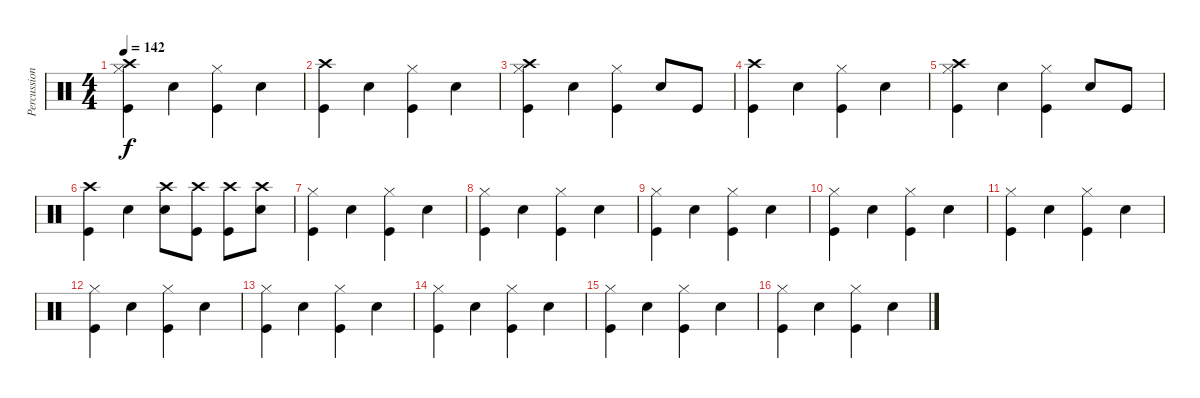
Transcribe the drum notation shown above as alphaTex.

\track ("Percussion" "Percussion") {instrument percussion}
\staff {score}
\articulation defaults
\ts (4 4)
\tempo 142
\clef neutral
\ks c
("Crash high (hit)" "Hi-Hat (closed)" "Kick (hit)").4{dy f} "Snare (hit) 2".4 ("Hi-Hat (closed)" "Kick (hit)").4 "Snare (hit) 2".4 |
("Crash high (hit)" "Kick (hit)").4 "Snare (hit) 2".4 ("Hi-Hat (closed)" "Kick (hit)").4 "Snare (hit) 2".4 |
("Crash high (hit)" "Hi-Hat (closed)" "Kick (hit)").4 "Snare (hit) 2".4 ("Hi-Hat (closed)" "Kick (hit)").4 "Snare (hit) 2".8 "Kick (hit)".8 |
("Crash high (hit)" "Kick (hit)").4 "Snare (hit) 2".4 ("Hi-Hat (closed)" "Kick (hit)").4 "Snare (hit) 2".4 |
("Crash high (hit)" "Hi-Hat (closed)" "Kick (hit)").4 "Snare (hit) 2".4 ("Hi-Hat (closed)" "Kick (hit)").4 "Snare (hit) 2".8 "Kick (hit)".8 |
("Crash high (hit)" "Kick (hit)").4 "Snare (hit) 2".4 ("Crash high (hit)" "Snare (hit) 2").8 ("Crash high (hit)" "Kick (hit)").8 ("Crash high (hit)" "Kick (hit)").8 ("Crash high (hit)" "Snare (hit) 2").8 |
("Hi-Hat (closed)" "Kick (hit)").4 "Snare (hit) 2".4 ("Hi-Hat (closed)" "Kick (hit)").4 "Snare (hit) 2".4 |
("Hi-Hat (closed)" "Kick (hit)").4 "Snare (hit) 2".4 ("Hi-Hat (closed)" "Kick (hit)").4 "Snare (hit) 2".4 |
("Hi-Hat (closed)" "Kick (hit)").4 "Snare (hit) 2".4 ("Hi-Hat (closed)" "Kick (hit)").4 "Snare (hit) 2".4 |
("Hi-Hat (closed)" "Kick (hit)").4 "Snare (hit) 2".4 ("Hi-Hat (closed)" "Kick (hit)").4 "Snare (hit) 2".4 |
("Hi-Hat (closed)" "Kick (hit)").4 "Snare (hit) 2".4 ("Hi-Hat (closed)" "Kick (hit)").4 "Snare (hit) 2".4 |
("Hi-Hat (closed)" "Kick (hit)").4 "Snare (hit) 2".4 ("Hi-Hat (closed)" "Kick (hit)").4 "Snare (hit) 2".4 |
("Hi-Hat (closed)" "Kick (hit)").4 "Snare (hit) 2".4 ("Hi-Hat (closed)" "Kick (hit)").4 "Snare (hit) 2".4 |
("Hi-Hat (closed)" "Kick (hit)").4 "Snare (hit) 2".4 ("Hi-Hat (closed)" "Kick (hit)").4 "Snare (hit) 2".4 |
("Hi-Hat (closed)" "Kick (hit)").4 "Snare (hit) 2".4 ("Hi-Hat (closed)" "Kick (hit)").4 "Snare (hit) 2".4 |
("Hi-Hat (closed)" "Kick (hit)").4 "Snare (hit) 2".4 ("Hi-Hat (closed)" "Kick (hit)").4 "Snare (hit) 2".4
